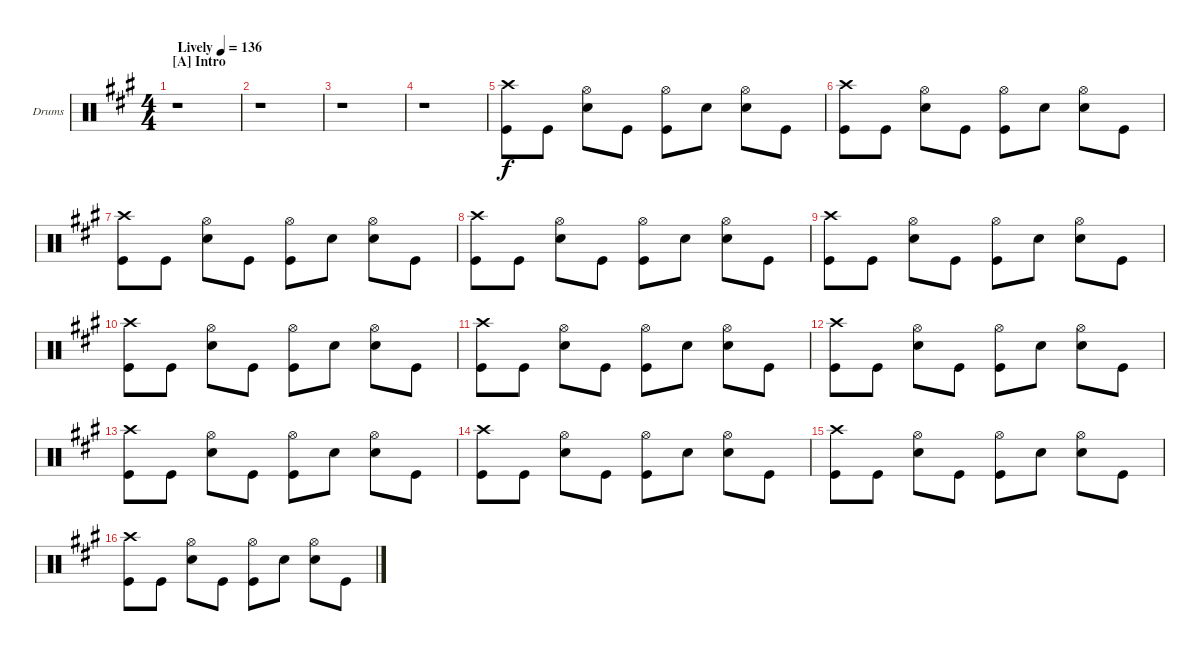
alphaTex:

\defaultSystemsLayout 4
\bracketExtendMode groupsimilarinstruments
\firstSystemTrackNameOrientation horizontal
\otherSystemsTrackNameOrientation horizontal
\track ("Drumkit" "Drums") {instrument percussion}
\staff {score}
\articulation defaults
\ts (4 4)
\section ("A" "Intro")
\tempo (136 "Lively")
\clef neutral
\scale
1.08827
\ks a
r.1{dy f} |
\scale
0.911728 r.1 |
\scale
1.05801 r.1 |
\scale
0.941992 r.1 |
\scale
1.05801 ("Crash high (hit)" "Kick (hit)").8 "Kick (hit)".8 ("Hi-Hat (open)" "Snare (hit) 2").8 "Kick (hit)".8 ("Hi-Hat (open)" "Kick (hit)").8 "Snare (hit) 2".8 ("Hi-Hat (open)" "Snare (hit) 2").8 "Kick (hit)".8 |
\scale
0.941992 ("Crash high (hit)" "Kick (hit)").8 "Kick (hit)".8 ("Hi-Hat (open)" "Snare (hit) 2").8 "Kick (hit)".8 ("Hi-Hat (open)" "Kick (hit)").8 "Snare (hit) 2".8 ("Hi-Hat (open)" "Snare (hit) 2").8 "Kick (hit)".8 |
\scale
1.05801 ("Crash high (hit)" "Kick (hit)").8 "Kick (hit)".8 ("Hi-Hat (open)" "Snare (hit) 2").8 "Kick (hit)".8 ("Hi-Hat (open)" "Kick (hit)").8 "Snare (hit) 2".8 ("Hi-Hat (open)" "Snare (hit) 2").8 "Kick (hit)".8 |
\scale
0.941992 ("Crash high (hit)" "Kick (hit)").8 "Kick (hit)".8 ("Hi-Hat (open)" "Snare (hit) 2").8 "Kick (hit)".8 ("Hi-Hat (open)" "Kick (hit)").8 "Snare (hit) 2".8 ("Hi-Hat (open)" "Snare (hit) 2").8 "Kick (hit)".8 |
\scale
1.05801 ("Crash high (hit)" "Kick (hit)").8 "Kick (hit)".8 ("Hi-Hat (open)" "Snare (hit) 2").8 "Kick (hit)".8 ("Hi-Hat (open)" "Kick (hit)").8 "Snare (hit) 2".8 ("Hi-Hat (open)" "Snare (hit) 2").8 "Kick (hit)".8 |
\scale
0.941992 ("Crash high (hit)" "Kick (hit)").8 "Kick (hit)".8 ("Hi-Hat (open)" "Snare (hit) 2").8 "Kick (hit)".8 ("Hi-Hat (open)" "Kick (hit)").8 "Snare (hit) 2".8 ("Hi-Hat (open)" "Snare (hit) 2").8 "Kick (hit)".8 |
\scale
1.05801 ("Crash high (hit)" "Kick (hit)").8 "Kick (hit)".8 ("Hi-Hat (open)" "Snare (hit) 2").8 "Kick (hit)".8 ("Hi-Hat (open)" "Kick (hit)").8 "Snare (hit) 2".8 ("Hi-Hat (open)" "Snare (hit) 2").8 "Kick (hit)".8 |
\scale
0.941992 ("Crash high (hit)" "Kick (hit)").8 "Kick (hit)".8 ("Hi-Hat (open)" "Snare (hit) 2").8 "Kick (hit)".8 ("Hi-Hat (open)" "Kick (hit)").8 "Snare (hit) 2".8 ("Hi-Hat (open)" "Snare (hit) 2").8 "Kick (hit)".8 |
\scale
1.05801 ("Crash high (hit)" "Kick (hit)").8 "Kick (hit)".8 ("Hi-Hat (open)" "Snare (hit) 2").8 "Kick (hit)".8 ("Hi-Hat (open)" "Kick (hit)").8 "Snare (hit) 2".8 ("Hi-Hat (open)" "Snare (hit) 2").8 "Kick (hit)".8 |
\scale
0.941992 ("Crash high (hit)" "Kick (hit)").8 "Kick (hit)".8 ("Hi-Hat (open)" "Snare (hit) 2").8 "Kick (hit)".8 ("Hi-Hat (open)" "Kick (hit)").8 "Snare (hit) 2".8 ("Hi-Hat (open)" "Snare (hit) 2").8 "Kick (hit)".8 |
\scale
1.05801 ("Crash high (hit)" "Kick (hit)").8 "Kick (hit)".8 ("Hi-Hat (open)" "Snare (hit) 2").8 "Kick (hit)".8 ("Hi-Hat (open)" "Kick (hit)").8 "Snare (hit) 2".8 ("Hi-Hat (open)" "Snare (hit) 2").8 "Kick (hit)".8 |
\scale
0.941992 ("Crash high (hit)" "Kick (hit)").8 "Kick (hit)".8 ("Hi-Hat (open)" "Snare (hit) 2").8 "Kick (hit)".8 ("Hi-Hat (open)" "Kick (hit)").8 "Snare (hit) 2".8 ("Hi-Hat (open)" "Snare (hit) 2").8 "Kick (hit)".8
